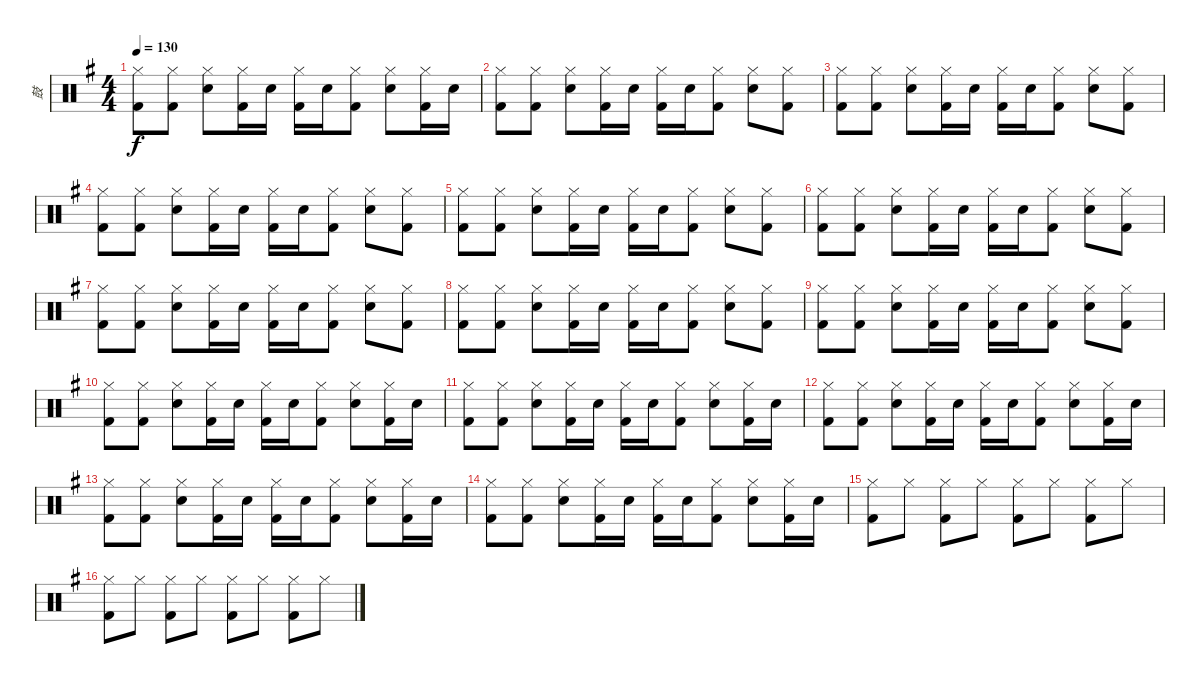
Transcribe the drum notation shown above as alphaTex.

\track ("鼓" "鼓") {instrument percussion}
\staff {score}
\articulation defaults
\ts (4 4)
\tempo 130
\clef neutral
\ks g
("Hi-Hat (closed)" "Kick (hit) 2").8{dy f} ("Hi-Hat (closed)" "Kick (hit) 2").8 ("Hi-Hat (closed)" "Snare (hit) 2").8 ("Hi-Hat (closed)" "Kick (hit) 2").16 "Snare (hit) 2".16 ("Hi-Hat (closed)" "Kick (hit) 2").16 "Snare (hit) 2".16 ("Hi-Hat (closed)" "Kick (hit) 2").8 ("Hi-Hat (closed)" "Snare (hit) 2").8 ("Hi-Hat (closed)" "Kick (hit) 2").16 "Snare (hit) 2".16 |
("Hi-Hat (closed)" "Kick (hit) 2").8 ("Hi-Hat (closed)" "Kick (hit) 2").8 ("Hi-Hat (closed)" "Snare (hit) 2").8 ("Hi-Hat (closed)" "Kick (hit) 2").16 "Snare (hit) 2".16 ("Hi-Hat (closed)" "Kick (hit) 2").16 "Snare (hit) 2".16 ("Hi-Hat (closed)" "Kick (hit) 2").8 ("Hi-Hat (closed)" "Snare (hit) 2").8 ("Hi-Hat (closed)" "Kick (hit) 2").8 |
("Hi-Hat (closed)" "Kick (hit) 2").8 ("Hi-Hat (closed)" "Kick (hit) 2").8 ("Hi-Hat (closed)" "Snare (hit) 2").8 ("Hi-Hat (closed)" "Kick (hit) 2").16 "Snare (hit) 2".16 ("Hi-Hat (closed)" "Kick (hit) 2").16 "Snare (hit) 2".16 ("Hi-Hat (closed)" "Kick (hit) 2").8 ("Hi-Hat (closed)" "Snare (hit) 2").8 ("Hi-Hat (closed)" "Kick (hit) 2").8 |
("Hi-Hat (closed)" "Kick (hit) 2").8 ("Hi-Hat (closed)" "Kick (hit) 2").8 ("Hi-Hat (closed)" "Snare (hit) 2").8 ("Hi-Hat (closed)" "Kick (hit) 2").16 "Snare (hit) 2".16 ("Hi-Hat (closed)" "Kick (hit) 2").16 "Snare (hit) 2".16 ("Hi-Hat (closed)" "Kick (hit) 2").8 ("Hi-Hat (closed)" "Snare (hit) 2").8 ("Hi-Hat (closed)" "Kick (hit) 2").8 |
("Hi-Hat (closed)" "Kick (hit) 2").8 ("Hi-Hat (closed)" "Kick (hit) 2").8 ("Hi-Hat (closed)" "Snare (hit) 2").8 ("Hi-Hat (closed)" "Kick (hit) 2").16 "Snare (hit) 2".16 ("Hi-Hat (closed)" "Kick (hit) 2").16 "Snare (hit) 2".16 ("Hi-Hat (closed)" "Kick (hit) 2").8 ("Hi-Hat (closed)" "Snare (hit) 2").8 ("Hi-Hat (closed)" "Kick (hit) 2").8 |
("Hi-Hat (closed)" "Kick (hit) 2").8 ("Hi-Hat (closed)" "Kick (hit) 2").8 ("Hi-Hat (closed)" "Snare (hit) 2").8 ("Hi-Hat (closed)" "Kick (hit) 2").16 "Snare (hit) 2".16 ("Hi-Hat (closed)" "Kick (hit) 2").16 "Snare (hit) 2".16 ("Hi-Hat (closed)" "Kick (hit) 2").8 ("Hi-Hat (closed)" "Snare (hit) 2").8 ("Hi-Hat (closed)" "Kick (hit) 2").8 |
("Hi-Hat (closed)" "Kick (hit) 2").8 ("Hi-Hat (closed)" "Kick (hit) 2").8 ("Hi-Hat (closed)" "Snare (hit) 2").8 ("Hi-Hat (closed)" "Kick (hit) 2").16 "Snare (hit) 2".16 ("Hi-Hat (closed)" "Kick (hit) 2").16 "Snare (hit) 2".16 ("Hi-Hat (closed)" "Kick (hit) 2").8 ("Hi-Hat (closed)" "Snare (hit) 2").8 ("Hi-Hat (closed)" "Kick (hit) 2").8 |
("Hi-Hat (closed)" "Kick (hit) 2").8 ("Hi-Hat (closed)" "Kick (hit) 2").8 ("Hi-Hat (closed)" "Snare (hit) 2").8 ("Hi-Hat (closed)" "Kick (hit) 2").16 "Snare (hit) 2".16 ("Hi-Hat (closed)" "Kick (hit) 2").16 "Snare (hit) 2".16 ("Hi-Hat (closed)" "Kick (hit) 2").8 ("Hi-Hat (closed)" "Snare (hit) 2").8 ("Hi-Hat (closed)" "Kick (hit) 2").8 |
("Hi-Hat (closed)" "Kick (hit) 2").8 ("Hi-Hat (closed)" "Kick (hit) 2").8 ("Hi-Hat (closed)" "Snare (hit) 2").8 ("Hi-Hat (closed)" "Kick (hit) 2").16 "Snare (hit) 2".16 ("Hi-Hat (closed)" "Kick (hit) 2").16 "Snare (hit) 2".16 ("Hi-Hat (closed)" "Kick (hit) 2").8 ("Hi-Hat (closed)" "Snare (hit) 2").8 ("Hi-Hat (closed)" "Kick (hit) 2").8 |
("Hi-Hat (closed)" "Kick (hit) 2").8 ("Hi-Hat (closed)" "Kick (hit) 2").8 ("Hi-Hat (closed)" "Snare (hit) 2").8 ("Hi-Hat (closed)" "Kick (hit) 2").16 "Snare (hit) 2".16 ("Hi-Hat (closed)" "Kick (hit) 2").16 "Snare (hit) 2".16 ("Hi-Hat (closed)" "Kick (hit) 2").8 ("Hi-Hat (closed)" "Snare (hit) 2").8 ("Hi-Hat (closed)" "Kick (hit) 2").16 "Snare (hit) 2".16 |
("Hi-Hat (closed)" "Kick (hit) 2").8 ("Hi-Hat (closed)" "Kick (hit) 2").8 ("Hi-Hat (closed)" "Snare (hit) 2").8 ("Hi-Hat (closed)" "Kick (hit) 2").16 "Snare (hit) 2".16 ("Hi-Hat (closed)" "Kick (hit) 2").16 "Snare (hit) 2".16 ("Hi-Hat (closed)" "Kick (hit) 2").8 ("Hi-Hat (closed)" "Snare (hit) 2").8 ("Hi-Hat (closed)" "Kick (hit) 2").16 "Snare (hit) 2".16 |
("Hi-Hat (closed)" "Kick (hit) 2").8 ("Hi-Hat (closed)" "Kick (hit) 2").8 ("Hi-Hat (closed)" "Snare (hit) 2").8 ("Hi-Hat (closed)" "Kick (hit) 2").16 "Snare (hit) 2".16 ("Hi-Hat (closed)" "Kick (hit) 2").16 "Snare (hit) 2".16 ("Hi-Hat (closed)" "Kick (hit) 2").8 ("Hi-Hat (closed)" "Snare (hit) 2").8 ("Hi-Hat (closed)" "Kick (hit) 2").16 "Snare (hit) 2".16 |
("Hi-Hat (closed)" "Kick (hit) 2").8 ("Hi-Hat (closed)" "Kick (hit) 2").8 ("Hi-Hat (closed)" "Snare (hit) 2").8 ("Hi-Hat (closed)" "Kick (hit) 2").16 "Snare (hit) 2".16 ("Hi-Hat (closed)" "Kick (hit) 2").16 "Snare (hit) 2".16 ("Hi-Hat (closed)" "Kick (hit) 2").8 ("Hi-Hat (closed)" "Snare (hit) 2").8 ("Hi-Hat (closed)" "Kick (hit) 2").16 "Snare (hit) 2".16 |
("Hi-Hat (closed)" "Kick (hit) 2").8 ("Hi-Hat (closed)" "Kick (hit) 2").8 ("Hi-Hat (closed)" "Snare (hit) 2").8 ("Hi-Hat (closed)" "Kick (hit) 2").16 "Snare (hit) 2".16 ("Hi-Hat (closed)" "Kick (hit) 2").16 "Snare (hit) 2".16 ("Hi-Hat (closed)" "Kick (hit) 2").8 ("Hi-Hat (closed)" "Snare (hit) 2").8 ("Hi-Hat (closed)" "Kick (hit) 2").16 "Snare (hit) 2".16 |
("Hi-Hat (closed)" "Kick (hit) 2").8 "Hi-Hat (closed)".8 ("Hi-Hat (closed)" "Kick (hit) 2").8 "Hi-Hat (closed)".8 ("Hi-Hat (closed)" "Kick (hit) 2").8 "Hi-Hat (closed)".8 ("Hi-Hat (closed)" "Kick (hit) 2").8 "Hi-Hat (closed)".8 |
("Hi-Hat (closed)" "Kick (hit) 2").8 "Hi-Hat (closed)".8 ("Hi-Hat (closed)" "Kick (hit) 2").8 "Hi-Hat (closed)".8 ("Hi-Hat (closed)" "Kick (hit) 2").8 "Hi-Hat (closed)".8 ("Hi-Hat (closed)" "Kick (hit) 2").8 "Hi-Hat (closed)".8
